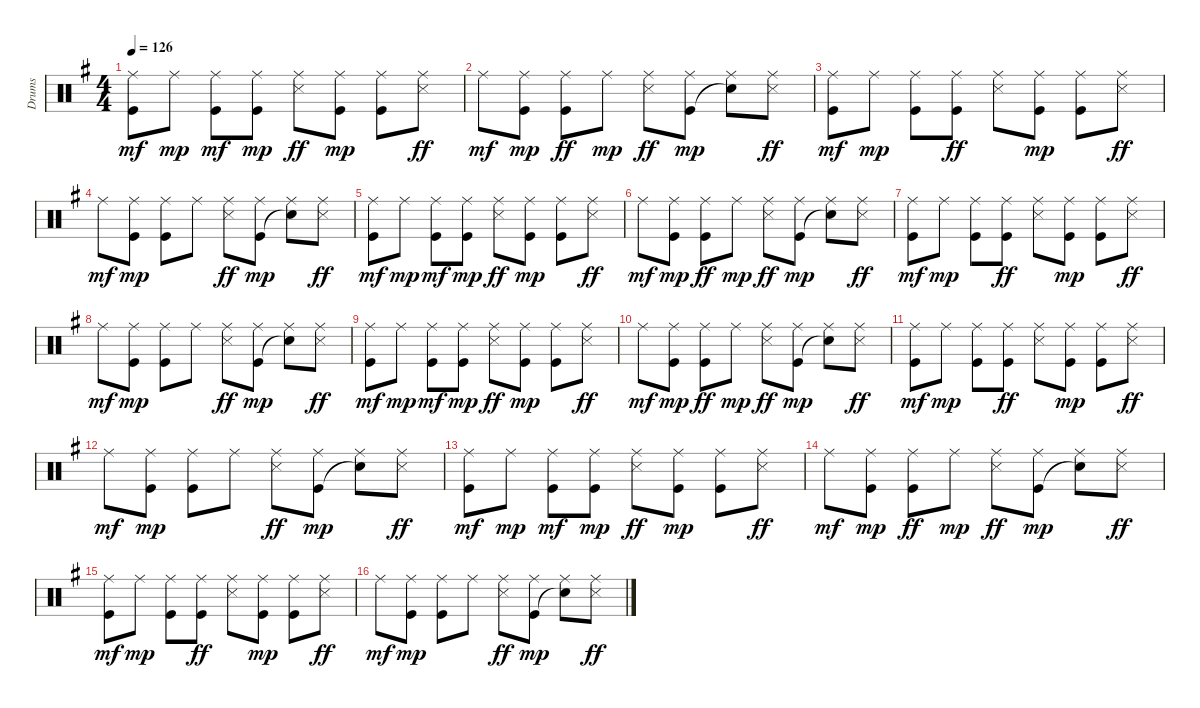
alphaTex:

\track ("Drums" "Drums") {instrument percussion}
\staff {score}
\articulation defaults
\ts (4 4)
\tempo 126
\clef neutral
\ks g
("Ride (middle)" "Kick (hit)").8{dy mf} "Ride (middle)".8{dy mp} ("Ride (middle)" "Kick (hit)").8{dy mf} ("Ride (middle)" "Kick (hit)").8{dy mp} ("Ride (middle)" "Snare (side stick) 3").8{dy ff} ("Ride (middle)" "Kick (hit)").8{dy mp} ("Ride (middle)" "Kick (hit)").8 ("Ride (middle)" "Snare (side stick) 3").8{dy ff} |
"Ride (middle)".8{dy mf} ("Ride (middle)" "Kick (hit)").8{dy mp} ("Ride (middle)" "Kick (hit)").8{dy ff} "Ride (middle)".8{dy mp} ("Ride (middle)" "Snare (side stick) 3").8{dy ff} ("Ride (middle)" "Kick (hit)").8{dy mp} ("Ride (middle)" "Snare (hit)"{t}).8 ("Ride (middle)" "Snare (side stick) 3").8{dy ff} |
("Ride (middle)" "Kick (hit)").8{dy mf} "Ride (middle)".8{dy mp} ("Ride (middle)" "Kick (hit)").8 ("Ride (middle)" "Kick (hit)").8{dy ff} ("Ride (middle)" "Snare (side stick) 3").8 ("Ride (middle)" "Kick (hit)").8{dy mp} ("Ride (middle)" "Kick (hit)").8 ("Ride (middle)" "Snare (side stick) 3").8{dy ff} |
"Ride (middle)".8{dy mf} ("Ride (middle)" "Kick (hit)").8{dy mp} ("Ride (middle)" "Kick (hit)").8 "Ride (middle)".8 ("Ride (middle)" "Snare (side stick) 3").8{dy ff} ("Ride (middle)" "Kick (hit)").8{dy mp} ("Ride (middle)" "Snare (hit)"{t}).8 ("Ride (middle)" "Snare (side stick) 3").8{dy ff} |
("Ride (middle)" "Kick (hit)").8{dy mf} "Ride (middle)".8{dy mp} ("Ride (middle)" "Kick (hit)").8{dy mf} ("Ride (middle)" "Kick (hit)").8{dy mp} ("Ride (middle)" "Snare (side stick) 3").8{dy ff} ("Ride (middle)" "Kick (hit)").8{dy mp} ("Ride (middle)" "Kick (hit)").8 ("Ride (middle)" "Snare (side stick) 3").8{dy ff} |
"Ride (middle)".8{dy mf} ("Ride (middle)" "Kick (hit)").8{dy mp} ("Ride (middle)" "Kick (hit)").8{dy ff} "Ride (middle)".8{dy mp} ("Ride (middle)" "Snare (side stick) 3").8{dy ff} ("Ride (middle)" "Kick (hit)").8{dy mp} ("Ride (middle)" "Snare (hit)"{t}).8 ("Ride (middle)" "Snare (side stick) 3").8{dy ff} |
("Ride (middle)" "Kick (hit)").8{dy mf} "Ride (middle)".8{dy mp} ("Ride (middle)" "Kick (hit)").8 ("Ride (middle)" "Kick (hit)").8{dy ff} ("Ride (middle)" "Snare (side stick) 3").8 ("Ride (middle)" "Kick (hit)").8{dy mp} ("Ride (middle)" "Kick (hit)").8 ("Ride (middle)" "Snare (side stick) 3").8{dy ff} |
"Ride (middle)".8{dy mf} ("Ride (middle)" "Kick (hit)").8{dy mp} ("Ride (middle)" "Kick (hit)").8 "Ride (middle)".8 ("Ride (middle)" "Snare (side stick) 3").8{dy ff} ("Ride (middle)" "Kick (hit)").8{dy mp} ("Ride (middle)" "Snare (hit)"{t}).8 ("Ride (middle)" "Snare (side stick) 3").8{dy ff} |
("Ride (middle)" "Kick (hit)").8{dy mf} "Ride (middle)".8{dy mp} ("Ride (middle)" "Kick (hit)").8{dy mf} ("Ride (middle)" "Kick (hit)").8{dy mp} ("Ride (middle)" "Snare (side stick) 3").8{dy ff} ("Ride (middle)" "Kick (hit)").8{dy mp} ("Ride (middle)" "Kick (hit)").8 ("Ride (middle)" "Snare (side stick) 3").8{dy ff} |
"Ride (middle)".8{dy mf} ("Ride (middle)" "Kick (hit)").8{dy mp} ("Ride (middle)" "Kick (hit)").8{dy ff} "Ride (middle)".8{dy mp} ("Ride (middle)" "Snare (side stick) 3").8{dy ff} ("Ride (middle)" "Kick (hit)").8{dy mp} ("Ride (middle)" "Snare (hit)"{t}).8 ("Ride (middle)" "Snare (side stick) 3").8{dy ff} |
("Ride (middle)" "Kick (hit)").8{dy mf} "Ride (middle)".8{dy mp} ("Ride (middle)" "Kick (hit)").8 ("Ride (middle)" "Kick (hit)").8{dy ff} ("Ride (middle)" "Snare (side stick) 3").8 ("Ride (middle)" "Kick (hit)").8{dy mp} ("Ride (middle)" "Kick (hit)").8 ("Ride (middle)" "Snare (side stick) 3").8{dy ff} |
"Ride (middle)".8{dy mf} ("Ride (middle)" "Kick (hit)").8{dy mp} ("Ride (middle)" "Kick (hit)").8 "Ride (middle)".8 ("Ride (middle)" "Snare (side stick) 3").8{dy ff} ("Ride (middle)" "Kick (hit)").8{dy mp} ("Ride (middle)" "Snare (hit)"{t}).8 ("Ride (middle)" "Snare (side stick) 3").8{dy ff} |
("Ride (middle)" "Kick (hit)").8{dy mf} "Ride (middle)".8{dy mp} ("Ride (middle)" "Kick (hit)").8{dy mf} ("Ride (middle)" "Kick (hit)").8{dy mp} ("Ride (middle)" "Snare (side stick) 3").8{dy ff} ("Ride (middle)" "Kick (hit)").8{dy mp} ("Ride (middle)" "Kick (hit)").8 ("Ride (middle)" "Snare (side stick) 3").8{dy ff} |
"Ride (middle)".8{dy mf} ("Ride (middle)" "Kick (hit)").8{dy mp} ("Ride (middle)" "Kick (hit)").8{dy ff} "Ride (middle)".8{dy mp} ("Ride (middle)" "Snare (side stick) 3").8{dy ff} ("Ride (middle)" "Kick (hit)").8{dy mp} ("Ride (middle)" "Snare (hit)"{t}).8 ("Ride (middle)" "Snare (side stick) 3").8{dy ff} |
("Ride (middle)" "Kick (hit)").8{dy mf} "Ride (middle)".8{dy mp} ("Ride (middle)" "Kick (hit)").8 ("Ride (middle)" "Kick (hit)").8{dy ff} ("Ride (middle)" "Snare (side stick) 3").8 ("Ride (middle)" "Kick (hit)").8{dy mp} ("Ride (middle)" "Kick (hit)").8 ("Ride (middle)" "Snare (side stick) 3").8{dy ff} |
"Ride (middle)".8{dy mf} ("Ride (middle)" "Kick (hit)").8{dy mp} ("Ride (middle)" "Kick (hit)").8 "Ride (middle)".8 ("Ride (middle)" "Snare (side stick) 3").8{dy ff} ("Ride (middle)" "Kick (hit)").8{dy mp} ("Ride (middle)" "Snare (hit)"{t}).8 ("Ride (middle)" "Snare (side stick) 3").8{dy ff}
